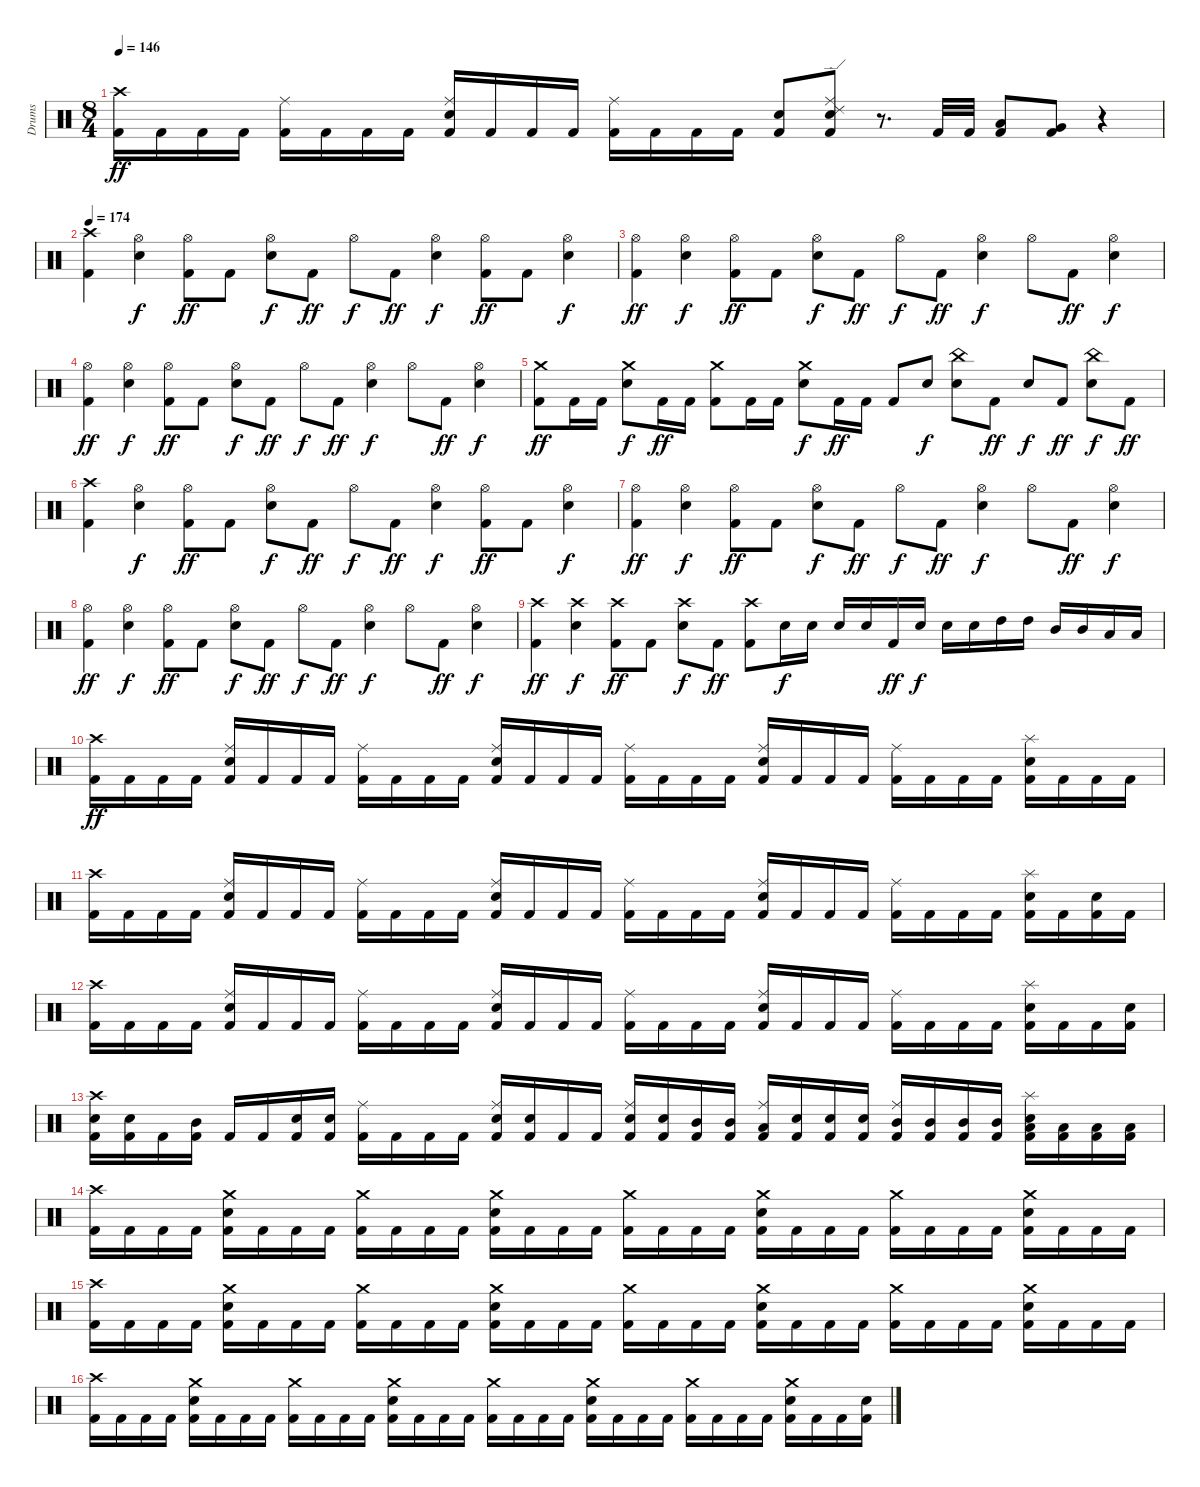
\track ("Drums" "Drums") {instrument percussion}
\staff {score}
\articulation defaults
\ts (8 4)
\tempo 146
\clef neutral
\ks c
("Crash high (hit)" "Kick (hit) 2").16{dy ff} "Kick (hit) 2".16 "Kick (hit) 2".16 "Kick (hit) 2".16 ("Ride (middle)" "Kick (hit) 2").16 "Kick (hit) 2".16 "Kick (hit) 2".16 "Kick (hit) 2".16 ("Ride (middle)" "Snare (hit) 2" "Kick (hit) 2").16 "Kick (hit) 2".16 "Kick (hit) 2".16 "Kick (hit) 2".16 ("Ride (middle)" "Kick (hit) 2").16 "Kick (hit) 2".16 "Kick (hit) 2".16 "Kick (hit) 2".16 ("Snare (hit) 2" "Kick (hit) 2").8 ("Ride (middle)" "Ride (edge) 2" "Snare (hit) 2" "Kick (hit) 2").8 r.8{d} "Kick (hit) 2".32 "Kick (hit) 2".32 ("Low Tom (hit)" "Kick (hit) 2").8 ("Very Low Tom (hit)" "Kick (hit) 2").8 r.4 |
\tempo 174
("Crash high (hit)" "Kick (hit) 2").4 ("Hi-Hat (open)" "Snare (hit) 2").4{dy f} ("Hi-Hat (open)" "Kick (hit) 2").8{dy ff} "Kick (hit) 2".8 ("Hi-Hat (open)" "Snare (hit) 2").8{dy f} "Kick (hit) 2".8{dy ff} "Hi-Hat (open)".8{dy f} "Kick (hit) 2".8{dy ff} ("Hi-Hat (open)" "Snare (hit) 2").4{dy f} ("Hi-Hat (open)" "Kick (hit) 2").8{dy ff} "Kick (hit) 2".8 ("Hi-Hat (open)" "Snare (hit) 2").4{dy f} |
("Hi-Hat (open)" "Kick (hit) 2").4{dy ff} ("Hi-Hat (open)" "Snare (hit) 2").4{dy f} ("Hi-Hat (open)" "Kick (hit) 2").8{dy ff} "Kick (hit) 2".8 ("Hi-Hat (open)" "Snare (hit) 2").8{dy f} "Kick (hit) 2".8{dy ff} "Hi-Hat (open)".8{dy f} "Kick (hit) 2".8{dy ff} ("Hi-Hat (open)" "Snare (hit) 2").4{dy f} "Hi-Hat (open)".8 "Kick (hit) 2".8{dy ff} ("Hi-Hat (open)" "Snare (hit) 2").4{dy f} |
("Hi-Hat (open)" "Kick (hit) 2").4{dy ff} ("Hi-Hat (open)" "Snare (hit) 2").4{dy f} ("Hi-Hat (open)" "Kick (hit) 2").8{dy ff} "Kick (hit) 2".8 ("Hi-Hat (open)" "Snare (hit) 2").8{dy f} "Kick (hit) 2".8{dy ff} "Hi-Hat (open)".8{dy f} "Kick (hit) 2".8{dy ff} ("Hi-Hat (open)" "Snare (hit) 2").4{dy f} "Hi-Hat (open)".8 "Kick (hit) 2".8{dy ff} ("Hi-Hat (open)" "Snare (hit) 2").4{dy f} |
("Crash medium (hit)" "Kick (hit) 2").8{dy ff} "Kick (hit) 2".16 "Kick (hit) 2".16 ("Crash medium (hit)" "Snare (hit) 2").8{dy f} "Kick (hit) 2".16{dy ff} "Kick (hit) 2".16 ("Crash medium (hit)" "Kick (hit) 2").8 "Kick (hit) 2".16 "Kick (hit) 2".16 ("Crash medium (hit)" "Snare (hit) 2").8{dy f} "Kick (hit) 2".16{dy ff} "Kick (hit) 2".16 "Kick (hit) 2".8 "Snare (hit) 2".8{dy f} ("China (hit)" "Snare (hit) 2").8 "Kick (hit) 2".8{dy ff} "Snare (hit) 2".8{dy f} "Kick (hit) 2".8{dy ff} ("China (hit)" "Snare (hit) 2").8{dy f} "Kick (hit) 2".8{dy ff} |
("Crash high (hit)" "Kick (hit) 2").4 ("Hi-Hat (open)" "Snare (hit) 2").4{dy f} ("Hi-Hat (open)" "Kick (hit) 2").8{dy ff} "Kick (hit) 2".8 ("Hi-Hat (open)" "Snare (hit) 2").8{dy f} "Kick (hit) 2".8{dy ff} "Hi-Hat (open)".8{dy f} "Kick (hit) 2".8{dy ff} ("Hi-Hat (open)" "Snare (hit) 2").4{dy f} ("Hi-Hat (open)" "Kick (hit) 2").8{dy ff} "Kick (hit) 2".8 ("Hi-Hat (open)" "Snare (hit) 2").4{dy f} |
("Hi-Hat (open)" "Kick (hit) 2").4{dy ff} ("Hi-Hat (open)" "Snare (hit) 2").4{dy f} ("Hi-Hat (open)" "Kick (hit) 2").8{dy ff} "Kick (hit) 2".8 ("Hi-Hat (open)" "Snare (hit) 2").8{dy f} "Kick (hit) 2".8{dy ff} "Hi-Hat (open)".8{dy f} "Kick (hit) 2".8{dy ff} ("Hi-Hat (open)" "Snare (hit) 2").4{dy f} "Hi-Hat (open)".8 "Kick (hit) 2".8{dy ff} ("Hi-Hat (open)" "Snare (hit) 2").4{dy f} |
("Hi-Hat (open)" "Kick (hit) 2").4{dy ff} ("Hi-Hat (open)" "Snare (hit) 2").4{dy f} ("Hi-Hat (open)" "Kick (hit) 2").8{dy ff} "Kick (hit) 2".8 ("Hi-Hat (open)" "Snare (hit) 2").8{dy f} "Kick (hit) 2".8{dy ff} "Hi-Hat (open)".8{dy f} "Kick (hit) 2".8{dy ff} ("Hi-Hat (open)" "Snare (hit) 2").4{dy f} "Hi-Hat (open)".8 "Kick (hit) 2".8{dy ff} ("Hi-Hat (open)" "Snare (hit) 2").4{dy f} |
("Crash high (hit)" "Kick (hit) 2").4{dy ff} ("Crash high (hit)" "Snare (hit) 2").4{dy f} ("Crash high (hit)" "Kick (hit) 2").8{dy ff} "Kick (hit) 2".8 ("Crash high (hit)" "Snare (hit) 2").8{dy f} "Kick (hit) 2".8{dy ff} ("Crash high (hit)" "Kick (hit) 2").8 "Snare (hit) 2".16{dy f} "Snare (hit) 2".16 "Snare (hit) 2".16 "Snare (hit) 2".16 "Kick (hit) 2".16{dy ff} "Snare (hit) 2".16{dy f} "Snare (hit) 2".16 "Snare (hit) 2".16 "High Tom (hit)".16 "High Tom (hit)".16 "Mid Tom (hit)".16 "Mid Tom (hit)".16 "Low Tom (hit)".16 "Low Tom (hit)".16 |
("Crash high (hit)" "Kick (hit) 2").16{dy ff} "Kick (hit) 2".16 "Kick (hit) 2".16 "Kick (hit) 2".16 ("Ride (middle)" "Snare (hit) 2" "Kick (hit) 2").16 "Kick (hit) 2".16 "Kick (hit) 2".16 "Kick (hit) 2".16 ("Ride (middle)" "Kick (hit) 2").16 "Kick (hit) 2".16 "Kick (hit) 2".16 "Kick (hit) 2".16 ("Ride (middle)" "Snare (hit) 2" "Kick (hit) 2").16 "Kick (hit) 2".16 "Kick (hit) 2".16 "Kick (hit) 2".16 ("Ride (middle)" "Kick (hit) 2").16 "Kick (hit) 2".16 "Kick (hit) 2".16 "Kick (hit) 2".16 ("Ride (middle)" "Snare (hit) 2" "Kick (hit) 2").16 "Kick (hit) 2".16 "Kick (hit) 2".16 "Kick (hit) 2".16 ("Ride (middle)" "Kick (hit) 2").16 "Kick (hit) 2".16 "Kick (hit) 2".16 "Kick (hit) 2".16 ("Splash (hit)" "Snare (hit) 2" "Kick (hit) 2").16 "Kick (hit) 2".16 "Kick (hit) 2".16 "Kick (hit) 2".16 |
("Crash high (hit)" "Kick (hit) 2").16 "Kick (hit) 2".16 "Kick (hit) 2".16 "Kick (hit) 2".16 ("Ride (middle)" "Snare (hit) 2" "Kick (hit) 2").16 "Kick (hit) 2".16 "Kick (hit) 2".16 "Kick (hit) 2".16 ("Ride (middle)" "Kick (hit) 2").16 "Kick (hit) 2".16 "Kick (hit) 2".16 "Kick (hit) 2".16 ("Ride (middle)" "Snare (hit) 2" "Kick (hit) 2").16 "Kick (hit) 2".16 "Kick (hit) 2".16 "Kick (hit) 2".16 ("Ride (middle)" "Kick (hit) 2").16 "Kick (hit) 2".16 "Kick (hit) 2".16 "Kick (hit) 2".16 ("Ride (middle)" "Snare (hit) 2" "Kick (hit) 2").16 "Kick (hit) 2".16 "Kick (hit) 2".16 "Kick (hit) 2".16 ("Ride (middle)" "Kick (hit) 2").16 "Kick (hit) 2".16 "Kick (hit) 2".16 "Kick (hit) 2".16 ("Splash (hit)" "Snare (hit) 2" "Kick (hit) 2").16 "Kick (hit) 2".16 ("Snare (hit) 2" "Kick (hit) 2").16 "Kick (hit) 2".16 |
("Crash high (hit)" "Kick (hit) 2").16 "Kick (hit) 2".16 "Kick (hit) 2".16 "Kick (hit) 2".16 ("Ride (middle)" "Snare (hit) 2" "Kick (hit) 2").16 "Kick (hit) 2".16 "Kick (hit) 2".16 "Kick (hit) 2".16 ("Ride (middle)" "Kick (hit) 2").16 "Kick (hit) 2".16 "Kick (hit) 2".16 "Kick (hit) 2".16 ("Ride (middle)" "Snare (hit) 2" "Kick (hit) 2").16 "Kick (hit) 2".16 "Kick (hit) 2".16 "Kick (hit) 2".16 ("Ride (middle)" "Kick (hit) 2").16 "Kick (hit) 2".16 "Kick (hit) 2".16 "Kick (hit) 2".16 ("Ride (middle)" "Snare (hit) 2" "Kick (hit) 2").16 "Kick (hit) 2".16 "Kick (hit) 2".16 "Kick (hit) 2".16 ("Ride (middle)" "Kick (hit) 2").16 "Kick (hit) 2".16 "Kick (hit) 2".16 "Kick (hit) 2".16 ("Splash (hit)" "Snare (hit) 2" "Kick (hit) 2").16 "Kick (hit) 2".16 "Kick (hit) 2".16 ("Snare (hit) 2" "Kick (hit) 2").16 |
("Crash high (hit)" "Snare (hit) 2" "Kick (hit) 2").16 ("Snare (hit) 2" "Kick (hit) 2").16 "Kick (hit) 2".16 ("Mid Tom (hit)" "Kick (hit) 2").16 "Kick (hit) 2".16 "Kick (hit) 2".16 ("Snare (hit) 2" "Kick (hit) 2").16 ("Snare (hit) 2" "Kick (hit) 2").16 ("Ride (middle)" "Kick (hit) 2").16 "Kick (hit) 2".16 "Kick (hit) 2".16 "Kick (hit) 2".16 ("Ride (middle)" "Snare (hit) 2" "Kick (hit) 2").16 ("Snare (hit) 2" "Kick (hit) 2").16 "Kick (hit) 2".16 "Kick (hit) 2".16 ("Ride (middle)" "Snare (hit) 2" "Kick (hit) 2").16 ("Snare (hit) 2" "Kick (hit) 2").16 ("Mid Tom (hit)" "Kick (hit) 2").16 ("Mid Tom (hit)" "Kick (hit) 2").16 ("Ride (middle)" "Low Tom (hit)" "Kick (hit) 2").16 ("Snare (hit) 2" "Kick (hit) 2").16 ("Snare (hit) 2" "Kick (hit) 2").16 ("Snare (hit) 2" "Kick (hit) 2").16 ("Ride (middle)" "Mid Tom (hit)" "Kick (hit) 2").16 ("Mid Tom (hit)" "Kick (hit) 2").16 ("Mid Tom (hit)" "Kick (hit) 2").16 ("Mid Tom (hit)" "Kick (hit) 2").16 ("Splash (hit)" "Low Tom (hit)" "Snare (hit) 2" "Kick (hit) 2").16 ("Low Tom (hit)" "Kick (hit) 2").16 ("Low Tom (hit)" "Kick (hit) 2").16 ("Low Tom (hit)" "Kick (hit) 2").16 |
("Crash high (hit)" "Kick (hit) 2").16 "Kick (hit) 2".16 "Kick (hit) 2".16 "Kick (hit) 2".16 ("Crash medium (hit)" "Snare (hit) 2" "Kick (hit) 2").16 "Kick (hit) 2".16 "Kick (hit) 2".16 "Kick (hit) 2".16 ("Crash medium (hit)" "Kick (hit) 2").16 "Kick (hit) 2".16 "Kick (hit) 2".16 "Kick (hit) 2".16 ("Crash medium (hit)" "Snare (hit) 2" "Kick (hit) 2").16 "Kick (hit) 2".16 "Kick (hit) 2".16 "Kick (hit) 2".16 ("Crash medium (hit)" "Kick (hit) 2").16 "Kick (hit) 2".16 "Kick (hit) 2".16 "Kick (hit) 2".16 ("Crash medium (hit)" "Snare (hit) 2" "Kick (hit) 2").16 "Kick (hit) 2".16 "Kick (hit) 2".16 "Kick (hit) 2".16 ("Crash medium (hit)" "Kick (hit) 2").16 "Kick (hit) 2".16 "Kick (hit) 2".16 "Kick (hit) 2".16 ("Crash medium (hit)" "Snare (hit) 2" "Kick (hit) 2").16 "Kick (hit) 2".16 "Kick (hit) 2".16 "Kick (hit) 2".16 |
("Crash high (hit)" "Kick (hit) 2").16 "Kick (hit) 2".16 "Kick (hit) 2".16 "Kick (hit) 2".16 ("Crash medium (hit)" "Snare (hit) 2" "Kick (hit) 2").16 "Kick (hit) 2".16 "Kick (hit) 2".16 "Kick (hit) 2".16 ("Crash medium (hit)" "Kick (hit) 2").16 "Kick (hit) 2".16 "Kick (hit) 2".16 "Kick (hit) 2".16 ("Crash medium (hit)" "Snare (hit) 2" "Kick (hit) 2").16 "Kick (hit) 2".16 "Kick (hit) 2".16 "Kick (hit) 2".16 ("Crash medium (hit)" "Kick (hit) 2").16 "Kick (hit) 2".16 "Kick (hit) 2".16 "Kick (hit) 2".16 ("Crash medium (hit)" "Snare (hit) 2" "Kick (hit) 2").16 "Kick (hit) 2".16 "Kick (hit) 2".16 "Kick (hit) 2".16 ("Crash medium (hit)" "Kick (hit) 2").16 "Kick (hit) 2".16 "Kick (hit) 2".16 "Kick (hit) 2".16 ("Crash medium (hit)" "Snare (hit) 2" "Kick (hit) 2").16 "Kick (hit) 2".16 "Kick (hit) 2".16 "Kick (hit) 2".16 |
("Crash high (hit)" "Kick (hit) 2").16 "Kick (hit) 2".16 "Kick (hit) 2".16 "Kick (hit) 2".16 ("Crash medium (hit)" "Snare (hit) 2" "Kick (hit) 2").16 "Kick (hit) 2".16 "Kick (hit) 2".16 "Kick (hit) 2".16 ("Crash medium (hit)" "Kick (hit) 2").16 "Kick (hit) 2".16 "Kick (hit) 2".16 "Kick (hit) 2".16 ("Crash medium (hit)" "Snare (hit) 2" "Kick (hit) 2").16 "Kick (hit) 2".16 "Kick (hit) 2".16 "Kick (hit) 2".16 ("Crash medium (hit)" "Kick (hit) 2").16 "Kick (hit) 2".16 "Kick (hit) 2".16 "Kick (hit) 2".16 ("Crash medium (hit)" "Snare (hit) 2" "Kick (hit) 2").16 "Kick (hit) 2".16 "Kick (hit) 2".16 "Kick (hit) 2".16 ("Crash medium (hit)" "Kick (hit) 2").16 "Kick (hit) 2".16 "Kick (hit) 2".16 "Kick (hit) 2".16 ("Crash medium (hit)" "Snare (hit) 2" "Kick (hit) 2").16 "Kick (hit) 2".16 "Kick (hit) 2".16 ("Snare (hit) 2" "Kick (hit) 2").16
